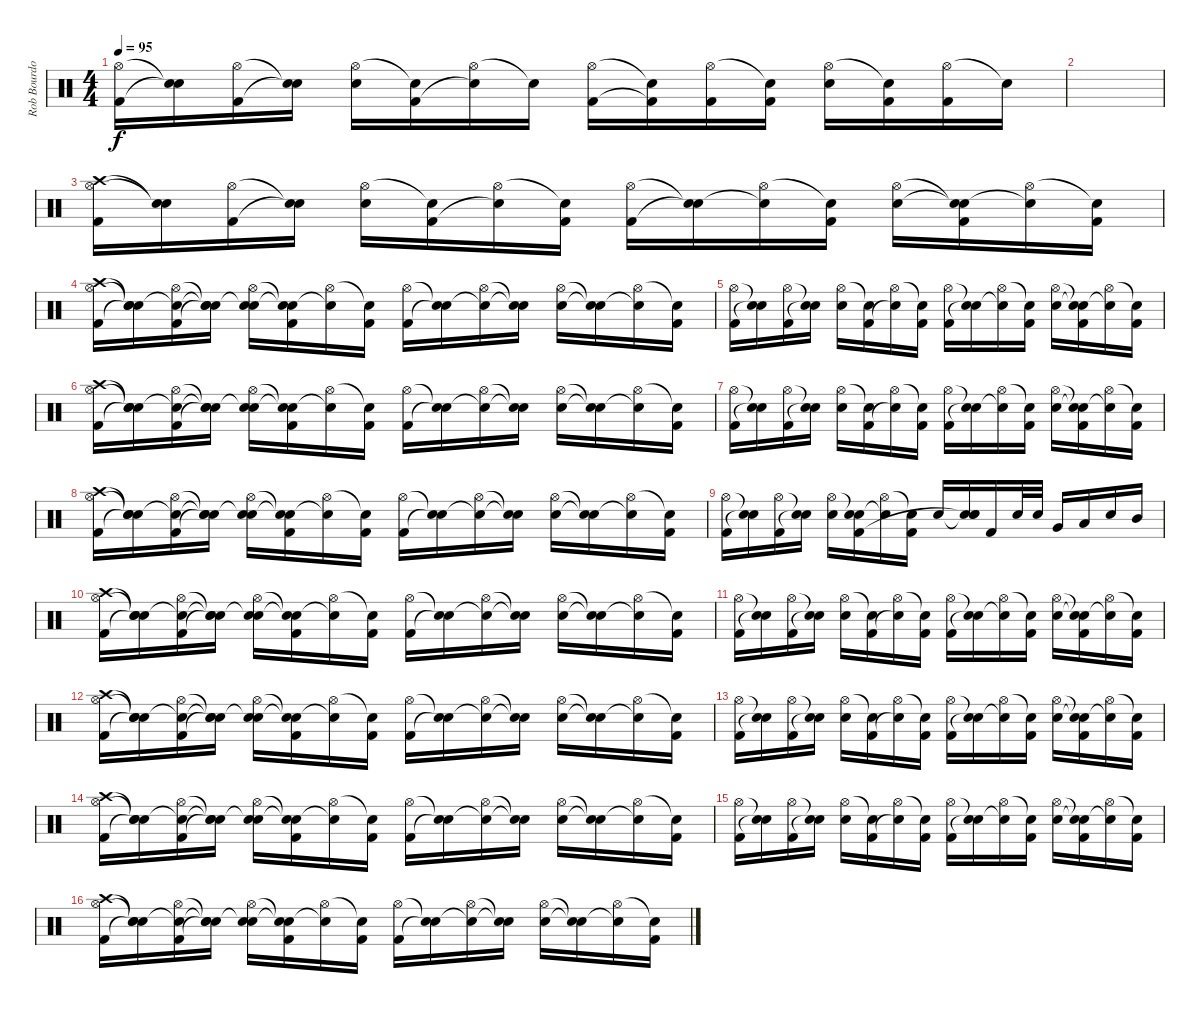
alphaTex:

\track ("Rob Bourdon" "Rob Bourdo") {instrument percussion}
\staff {score}
\articulation defaults
\ts (4 4)
\tempo 95
\clef neutral
\ks c
("Hi-Hat (open)" "Kick (hit) 2").16{dy f} ("Snare (hit)"{t} "Snare (hit)"{t}).16 ("Hi-Hat (open)" "Kick (hit) 2").16 ("Snare (hit)"{t} "Snare (hit)"{t}).16 ("Hi-Hat (open)" "Snare (hit) 2").16 ("Snare (hit)"{t} "Kick (hit) 2").16 ("Hi-Hat (open)" "Snare (hit)"{t}).16 "Snare (hit)"{t}.16 ("Hi-Hat (open)" "Kick (hit) 2").16 ("Snare (hit)"{t} "Kick (hit) 2"{t}).16 ("Hi-Hat (open)" "Kick (hit) 2").16 ("Snare (hit)"{t} "Kick (hit) 2").16 ("Hi-Hat (open)" "Snare (hit) 2").16 ("Snare (hit)"{t} "Kick (hit) 2").16 ("Hi-Hat (open)" "Kick (hit) 2").16 "Snare (hit)"{t}.16 |
|
("Crash high (hit)" "Hi-Hat (open)" "Kick (hit) 2").16 ("Snare (hit)"{t} "Snare (hit)"{t}).16 ("Hi-Hat (open)" "Kick (hit) 2").16 ("Snare (hit)"{t} "Snare (hit)"{t}).16 ("Hi-Hat (open)" "Snare (hit) 2").16 ("Snare (hit)"{t} "Kick (hit) 2").16 ("Hi-Hat (open)" "Snare (hit)"{t}).16 ("Snare (hit)"{t} "Kick (hit) 2").16 ("Hi-Hat (open)" "Kick (hit) 2").16 ("Snare (hit)"{t} "Snare (hit)"{t}).16 ("Hi-Hat (open)" "Snare (hit)"{t}).16 ("Snare (hit)"{t} "Kick (hit) 2").16 ("Hi-Hat (open)" "Snare (hit) 2").16 ("Snare (hit)"{t} "Snare (hit)"{t} "Kick (hit) 2").16 ("Hi-Hat (open)" "Snare (hit)"{t}).16 ("Snare (hit)"{t} "Kick (hit) 2").16 |
("Crash high (hit)" "Hi-Hat (open)" "Kick (hit) 2").16 ("Snare (hit)"{t} "Snare (hit)"{t} "Snare (hit)"{t}).16 ("Snare (hit)"{t} "Hi-Hat (open)" "Kick (hit) 2").16 ("Snare (hit)"{t} "Snare (hit)"{t} "Snare (hit)"{t}).16 ("Snare (hit)"{t} "Hi-Hat (open)" "Snare (hit) 2").16 ("Snare (hit)"{t} "Snare (hit)"{t} "Kick (hit) 2").16 ("Hi-Hat (open)" "Snare (hit)"{t}).16 ("Snare (hit)"{t} "Kick (hit) 2").16 ("Hi-Hat (open)" "Kick (hit) 2").16 ("Snare (hit)"{t} "Snare (hit)"{t}).16 ("Hi-Hat (open)" "Snare (hit)"{t}).16 ("Snare (hit)"{t} "Snare (hit)"{t}).16 ("Hi-Hat (open)" "Snare (hit) 2").16 ("Snare (hit)"{t} "Snare (hit)"{t}).16 ("Hi-Hat (open)" "Snare (hit)"{t}).16 ("Snare (hit)"{t} "Kick (hit) 2").16 |
("Hi-Hat (open)" "Kick (hit) 2").16 ("Snare (hit)"{t} "Snare (hit)"{t}).16 ("Hi-Hat (open)" "Kick (hit) 2").16 ("Snare (hit)"{t} "Snare (hit)"{t}).16 ("Hi-Hat (open)" "Snare (hit) 2").16 ("Snare (hit)"{t} "Kick (hit) 2").16 ("Hi-Hat (open)" "Snare (hit)"{t}).16 ("Snare (hit)"{t} "Kick (hit) 2").16 ("Hi-Hat (open)" "Kick (hit) 2").16 ("Snare (hit)"{t} "Snare (hit)"{t}).16 ("Hi-Hat (open)" "Snare (hit)"{t}).16 ("Snare (hit)"{t} "Kick (hit) 2").16 ("Hi-Hat (open)" "Snare (hit) 2").16 ("Snare (hit)"{t} "Snare (hit)"{t} "Kick (hit) 2").16 ("Hi-Hat (open)" "Snare (hit)"{t}).16 ("Snare (hit)"{t} "Kick (hit) 2").16 |
("Crash high (hit)" "Hi-Hat (open)" "Kick (hit) 2").16 ("Snare (hit)"{t} "Snare (hit)"{t} "Snare (hit)"{t}).16 ("Snare (hit)"{t} "Hi-Hat (open)" "Kick (hit) 2").16 ("Snare (hit)"{t} "Snare (hit)"{t} "Snare (hit)"{t}).16 ("Snare (hit)"{t} "Hi-Hat (open)" "Snare (hit) 2").16 ("Snare (hit)"{t} "Snare (hit)"{t} "Kick (hit) 2").16 ("Hi-Hat (open)" "Snare (hit)"{t}).16 ("Snare (hit)"{t} "Kick (hit) 2").16 ("Hi-Hat (open)" "Kick (hit) 2").16 ("Snare (hit)"{t} "Snare (hit)"{t}).16 ("Hi-Hat (open)" "Snare (hit)"{t}).16 ("Snare (hit)"{t} "Snare (hit)"{t}).16 ("Hi-Hat (open)" "Snare (hit) 2").16 ("Snare (hit)"{t} "Snare (hit)"{t}).16 ("Hi-Hat (open)" "Snare (hit)"{t}).16 ("Snare (hit)"{t} "Kick (hit) 2").16 |
("Hi-Hat (open)" "Kick (hit) 2").16 ("Snare (hit)"{t} "Snare (hit)"{t}).16 ("Hi-Hat (open)" "Kick (hit) 2").16 ("Snare (hit)"{t} "Snare (hit)"{t}).16 ("Hi-Hat (open)" "Snare (hit) 2").16 ("Snare (hit)"{t} "Kick (hit) 2").16 ("Hi-Hat (open)" "Snare (hit)"{t}).16 ("Snare (hit)"{t} "Kick (hit) 2").16 ("Hi-Hat (open)" "Kick (hit) 2").16 ("Snare (hit)"{t} "Snare (hit)"{t}).16 ("Hi-Hat (open)" "Snare (hit)"{t}).16 ("Snare (hit)"{t} "Kick (hit) 2").16 ("Hi-Hat (open)" "Snare (hit) 2").16 ("Snare (hit)"{t} "Snare (hit)"{t} "Kick (hit) 2").16 ("Hi-Hat (open)" "Snare (hit)"{t}).16 ("Snare (hit)"{t} "Kick (hit) 2").16 |
("Crash high (hit)" "Hi-Hat (open)" "Kick (hit) 2").16 ("Snare (hit)"{t} "Snare (hit)"{t} "Snare (hit)"{t}).16 ("Snare (hit)"{t} "Hi-Hat (open)" "Kick (hit) 2").16 ("Snare (hit)"{t} "Snare (hit)"{t} "Snare (hit)"{t}).16 ("Snare (hit)"{t} "Hi-Hat (open)" "Snare (hit) 2").16 ("Snare (hit)"{t} "Snare (hit)"{t} "Kick (hit) 2").16 ("Hi-Hat (open)" "Snare (hit)"{t}).16 ("Snare (hit)"{t} "Kick (hit) 2").16 ("Hi-Hat (open)" "Kick (hit) 2").16 ("Snare (hit)"{t} "Snare (hit)"{t}).16 ("Hi-Hat (open)" "Snare (hit)"{t}).16 ("Snare (hit)"{t} "Snare (hit)"{t}).16 ("Hi-Hat (open)" "Snare (hit) 2").16 ("Snare (hit)"{t} "Snare (hit)"{t}).16 ("Hi-Hat (open)" "Snare (hit)"{t}).16 ("Snare (hit)"{t} "Kick (hit) 2").16 |
("Hi-Hat (open)" "Kick (hit) 2").16 ("Snare (hit)"{t} "Snare (hit)"{t}).16 ("Hi-Hat (open)" "Kick (hit) 2").16 ("Snare (hit)"{t} "Snare (hit)"{t}).16 ("Hi-Hat (open)" "Snare (hit) 2").16 ("Snare (hit)"{t} "Snare (hit) 2" "Kick (hit) 2").16 ("Hi-Hat (open)" "Snare (hit)"{t}).16 ("Snare (hit)"{t} "Kick (hit) 2").16 "Snare (hit) 2".16 ("Snare (hit)"{t} "Snare (hit) 2" "Snare (hit)"{t}).16 "Kick (hit) 2".16 "Snare (hit) 2".32 "Snare (hit) 2".32 "Very Low Tom (hit)".16 "Low Tom (hit)".16 "Snare (hit) 2".16 "Mid Tom (hit)".16 |
("Crash high (hit)" "Hi-Hat (open)" "Kick (hit) 2").16 ("Snare (hit)"{t} "Snare (hit)"{t} "Snare (hit)"{t}).16 ("Snare (hit)"{t} "Hi-Hat (open)" "Kick (hit) 2").16 ("Snare (hit)"{t} "Snare (hit)"{t} "Snare (hit)"{t}).16 ("Snare (hit)"{t} "Hi-Hat (open)" "Snare (hit) 2").16 ("Snare (hit)"{t} "Snare (hit)"{t} "Kick (hit) 2").16 ("Hi-Hat (open)" "Snare (hit)"{t}).16 ("Snare (hit)"{t} "Kick (hit) 2").16 ("Hi-Hat (open)" "Kick (hit) 2").16 ("Snare (hit)"{t} "Snare (hit)"{t}).16 ("Hi-Hat (open)" "Snare (hit)"{t}).16 ("Snare (hit)"{t} "Snare (hit)"{t}).16 ("Hi-Hat (open)" "Snare (hit) 2").16 ("Snare (hit)"{t} "Snare (hit)"{t}).16 ("Hi-Hat (open)" "Snare (hit)"{t}).16 ("Snare (hit)"{t} "Kick (hit) 2").16 |
("Hi-Hat (open)" "Kick (hit) 2").16 ("Snare (hit)"{t} "Snare (hit)"{t}).16 ("Hi-Hat (open)" "Kick (hit) 2").16 ("Snare (hit)"{t} "Snare (hit)"{t}).16 ("Hi-Hat (open)" "Snare (hit) 2").16 ("Snare (hit)"{t} "Kick (hit) 2").16 ("Hi-Hat (open)" "Snare (hit)"{t}).16 ("Snare (hit)"{t} "Kick (hit) 2").16 ("Hi-Hat (open)" "Kick (hit) 2").16 ("Snare (hit)"{t} "Snare (hit)"{t}).16 ("Hi-Hat (open)" "Snare (hit)"{t}).16 ("Snare (hit)"{t} "Kick (hit) 2").16 ("Hi-Hat (open)" "Snare (hit) 2").16 ("Snare (hit)"{t} "Snare (hit)"{t} "Kick (hit) 2").16 ("Hi-Hat (open)" "Snare (hit)"{t}).16 ("Snare (hit)"{t} "Kick (hit) 2").16 |
("Crash high (hit)" "Hi-Hat (open)" "Kick (hit) 2").16 ("Snare (hit)"{t} "Snare (hit)"{t} "Snare (hit)"{t}).16 ("Snare (hit)"{t} "Hi-Hat (open)" "Kick (hit) 2").16 ("Snare (hit)"{t} "Snare (hit)"{t} "Snare (hit)"{t}).16 ("Snare (hit)"{t} "Hi-Hat (open)" "Snare (hit) 2").16 ("Snare (hit)"{t} "Snare (hit)"{t} "Kick (hit) 2").16 ("Hi-Hat (open)" "Snare (hit)"{t}).16 ("Snare (hit)"{t} "Kick (hit) 2").16 ("Hi-Hat (open)" "Kick (hit) 2").16 ("Snare (hit)"{t} "Snare (hit)"{t}).16 ("Hi-Hat (open)" "Snare (hit)"{t}).16 ("Snare (hit)"{t} "Snare (hit)"{t}).16 ("Hi-Hat (open)" "Snare (hit) 2").16 ("Snare (hit)"{t} "Snare (hit)"{t}).16 ("Hi-Hat (open)" "Snare (hit)"{t}).16 ("Snare (hit)"{t} "Kick (hit) 2").16 |
("Hi-Hat (open)" "Kick (hit) 2").16 ("Snare (hit)"{t} "Snare (hit)"{t}).16 ("Hi-Hat (open)" "Kick (hit) 2").16 ("Snare (hit)"{t} "Snare (hit)"{t}).16 ("Hi-Hat (open)" "Snare (hit) 2").16 ("Snare (hit)"{t} "Kick (hit) 2").16 ("Hi-Hat (open)" "Snare (hit)"{t}).16 ("Snare (hit)"{t} "Kick (hit) 2").16 ("Hi-Hat (open)" "Kick (hit) 2").16 ("Snare (hit)"{t} "Snare (hit)"{t}).16 ("Hi-Hat (open)" "Snare (hit)"{t}).16 ("Snare (hit)"{t} "Kick (hit) 2").16 ("Hi-Hat (open)" "Snare (hit) 2").16 ("Snare (hit)"{t} "Snare (hit)"{t} "Kick (hit) 2").16 ("Hi-Hat (open)" "Snare (hit)"{t}).16 ("Snare (hit)"{t} "Kick (hit) 2").16 |
("Crash high (hit)" "Hi-Hat (open)" "Kick (hit) 2").16 ("Snare (hit)"{t} "Snare (hit)"{t} "Snare (hit)"{t}).16 ("Snare (hit)"{t} "Hi-Hat (open)" "Kick (hit) 2").16 ("Snare (hit)"{t} "Snare (hit)"{t} "Snare (hit)"{t}).16 ("Snare (hit)"{t} "Hi-Hat (open)" "Snare (hit) 2").16 ("Snare (hit)"{t} "Snare (hit)"{t} "Kick (hit) 2").16 ("Hi-Hat (open)" "Snare (hit)"{t}).16 ("Snare (hit)"{t} "Kick (hit) 2").16 ("Hi-Hat (open)" "Kick (hit) 2").16 ("Snare (hit)"{t} "Snare (hit)"{t}).16 ("Hi-Hat (open)" "Snare (hit)"{t}).16 ("Snare (hit)"{t} "Snare (hit)"{t}).16 ("Hi-Hat (open)" "Snare (hit) 2").16 ("Snare (hit)"{t} "Snare (hit)"{t}).16 ("Hi-Hat (open)" "Snare (hit)"{t}).16 ("Snare (hit)"{t} "Kick (hit) 2").16 |
("Hi-Hat (open)" "Kick (hit) 2").16 ("Snare (hit)"{t} "Snare (hit)"{t}).16 ("Hi-Hat (open)" "Kick (hit) 2").16 ("Snare (hit)"{t} "Snare (hit)"{t}).16 ("Hi-Hat (open)" "Snare (hit) 2").16 ("Snare (hit)"{t} "Kick (hit) 2").16 ("Hi-Hat (open)" "Snare (hit)"{t}).16 ("Snare (hit)"{t} "Kick (hit) 2").16 ("Hi-Hat (open)" "Kick (hit) 2").16 ("Snare (hit)"{t} "Snare (hit)"{t}).16 ("Hi-Hat (open)" "Snare (hit)"{t}).16 ("Snare (hit)"{t} "Kick (hit) 2").16 ("Hi-Hat (open)" "Snare (hit) 2").16 ("Snare (hit)"{t} "Snare (hit)"{t} "Kick (hit) 2").16 ("Hi-Hat (open)" "Snare (hit)"{t}).16 ("Snare (hit)"{t} "Kick (hit) 2").16 |
("Crash high (hit)" "Hi-Hat (open)" "Kick (hit) 2").16 ("Snare (hit)"{t} "Snare (hit)"{t} "Snare (hit)"{t}).16 ("Snare (hit)"{t} "Hi-Hat (open)" "Kick (hit) 2").16 ("Snare (hit)"{t} "Snare (hit)"{t} "Snare (hit)"{t}).16 ("Snare (hit)"{t} "Hi-Hat (open)" "Snare (hit) 2").16 ("Snare (hit)"{t} "Snare (hit)"{t} "Kick (hit) 2").16 ("Hi-Hat (open)" "Snare (hit)"{t}).16 ("Snare (hit)"{t} "Kick (hit) 2").16 ("Hi-Hat (open)" "Kick (hit) 2").16 ("Snare (hit)"{t} "Snare (hit)"{t}).16 ("Hi-Hat (open)" "Snare (hit)"{t}).16 ("Snare (hit)"{t} "Snare (hit)"{t}).16 ("Hi-Hat (open)" "Snare (hit) 2").16 ("Snare (hit)"{t} "Snare (hit)"{t}).16 ("Hi-Hat (open)" "Snare (hit)"{t}).16 ("Snare (hit)"{t} "Kick (hit) 2").16
